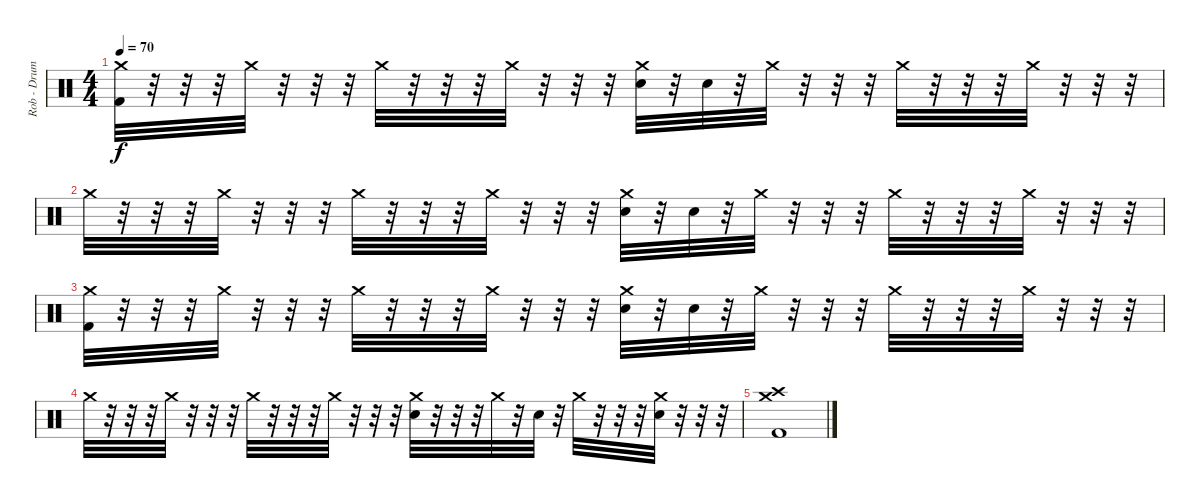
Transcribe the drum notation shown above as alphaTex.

\track ("Rob - Drums" "Rob - Drum") {instrument percussion}
\staff {score}
\articulation defaults
\ts (4 4)
\tempo 70
\clef neutral
\ks c
("Crash medium (hit)" "Kick (hit) 2").32{dy f} r.32 r.32 r.32 "Crash medium (hit)".32 r.32 r.32 r.32 "Crash medium (hit)".32 r.32 r.32 r.32 "Crash medium (hit)".32 r.32 r.32 r.32 ("Crash medium (hit)" "Electric Snare (hit)").32 r.32 "Electric Snare (hit)".32 r.32 "Crash medium (hit)".32 r.32 r.32 r.32 "Crash medium (hit)".32 r.32 r.32 r.32 "Crash medium (hit)".32 r.32 r.32 r.32 |
"Crash medium (hit)".32 r.32 r.32 r.32 "Crash medium (hit)".32 r.32 r.32 r.32 "Crash medium (hit)".32 r.32 r.32 r.32 "Crash medium (hit)".32 r.32 r.32 r.32 ("Crash medium (hit)" "Electric Snare (hit)").32 r.32 "Electric Snare (hit)".32 r.32 "Crash medium (hit)".32 r.32 r.32 r.32 "Crash medium (hit)".32 r.32 r.32 r.32 "Crash medium (hit)".32 r.32 r.32 r.32 |
("Crash medium (hit)" "Kick (hit) 2").32 r.32 r.32 r.32 "Crash medium (hit)".32 r.32 r.32 r.32 "Crash medium (hit)".32 r.32 r.32 r.32 "Crash medium (hit)".32 r.32 r.32 r.32 ("Crash medium (hit)" "Electric Snare (hit)").32 r.32 "Electric Snare (hit)".32 r.32 "Crash medium (hit)".32 r.32 r.32 r.32 "Crash medium (hit)".32 r.32 r.32 r.32 "Crash medium (hit)".32 r.32 r.32 r.32 |
"Crash medium (hit)".32 r.32 r.32 r.32 "Crash medium (hit)".32 r.32 r.32 r.32 "Crash medium (hit)".32 r.32 r.32 r.32 "Crash medium (hit)".32 r.32 r.32 r.32 ("Crash medium (hit)" "Electric Snare (hit)").32 r.32 r.32 r.32 "Crash medium (hit)".32 r.32 "Electric Snare (hit)".32 r.32 "Crash medium (hit)".32 r.32 r.32 r.32 ("Crash medium (hit)" "Electric Snare (hit)").32 r.32 r.32 r.32 |
("Crash high (hit)" "Crash medium (hit)" "Kick (hit) 2").1
